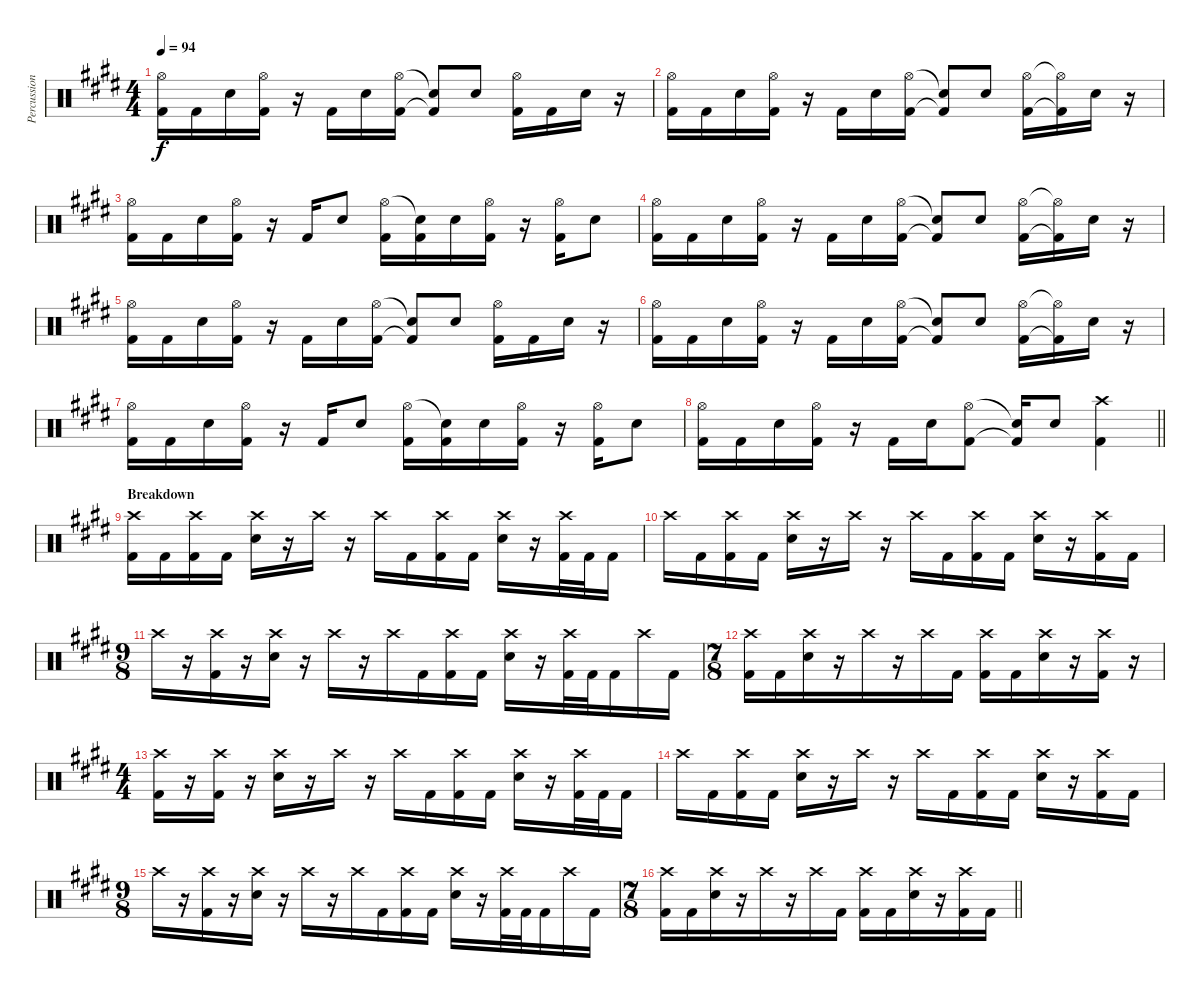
\track ("Percussion" "Percussion") {instrument percussion}
\staff {score}
\articulation defaults
\ts (4 4)
\tempo 94
\clef neutral
\ks e
("Hi-Hat (open)" "Kick (hit) 2").16{dy f} "Kick (hit) 2".16 "Snare (hit) 2".16 ("Hi-Hat (open)" "Kick (hit) 2").16 r.16 "Kick (hit) 2".16 "Snare (hit) 2".16 ("Hi-Hat (open)" "Kick (hit) 2").16 ("Snare (hit)"{t} "Kick (hit) 2"{t}).8 "Snare (hit) 2".8 ("Hi-Hat (open)" "Kick (hit) 2").16 "Kick (hit) 2".16 "Snare (hit) 2".16 r.16 |
("Hi-Hat (open)" "Kick (hit) 2").16 "Kick (hit) 2".16 "Snare (hit) 2".16 ("Hi-Hat (open)" "Kick (hit) 2").16 r.16 "Kick (hit) 2".16 "Snare (hit) 2".16 ("Hi-Hat (open)" "Kick (hit) 2").16 ("Snare (hit)"{t} "Kick (hit) 2"{t}).8 "Snare (hit) 2".8 ("Hi-Hat (open)" "Kick (hit) 2").16 ("Hi-Hat (open)"{t} "Kick (hit) 2"{t}).16 "Snare (hit) 2".16 r.16 |
("Hi-Hat (open)" "Kick (hit) 2").16 "Kick (hit) 2".16 "Snare (hit) 2".16 ("Hi-Hat (open)" "Kick (hit) 2").16 r.16 "Kick (hit) 2".16 "Snare (hit) 2".8 ("Hi-Hat (open)" "Kick (hit) 2").16 ("Snare (hit)"{t} "Kick (hit) 2").16 "Snare (hit) 2".16 ("Hi-Hat (open)" "Kick (hit) 2").16 r.16 ("Hi-Hat (open)" "Kick (hit) 2").16 "Snare (hit) 2".8 |
("Hi-Hat (open)" "Kick (hit) 2").16 "Kick (hit) 2".16 "Snare (hit) 2".16 ("Hi-Hat (open)" "Kick (hit) 2").16 r.16 "Kick (hit) 2".16 "Snare (hit) 2".16 ("Hi-Hat (open)" "Kick (hit) 2").16 ("Snare (hit)"{t} "Kick (hit) 2"{t}).8 "Snare (hit) 2".8 ("Hi-Hat (open)" "Kick (hit) 2").16 ("Hi-Hat (open)"{t} "Kick (hit) 2"{t}).16 "Snare (hit) 2".16 r.16 |
("Hi-Hat (open)" "Kick (hit) 2").16 "Kick (hit) 2".16 "Snare (hit) 2".16 ("Hi-Hat (open)" "Kick (hit) 2").16 r.16 "Kick (hit) 2".16 "Snare (hit) 2".16 ("Hi-Hat (open)" "Kick (hit) 2").16 ("Snare (hit)"{t} "Kick (hit) 2"{t}).8 "Snare (hit) 2".8 ("Hi-Hat (open)" "Kick (hit) 2").16 "Kick (hit) 2".16 "Snare (hit) 2".16 r.16 |
("Hi-Hat (open)" "Kick (hit) 2").16 "Kick (hit) 2".16 "Snare (hit) 2".16 ("Hi-Hat (open)" "Kick (hit) 2").16 r.16 "Kick (hit) 2".16 "Snare (hit) 2".16 ("Hi-Hat (open)" "Kick (hit) 2").16 ("Snare (hit)"{t} "Kick (hit) 2"{t}).8 "Snare (hit) 2".8 ("Hi-Hat (open)" "Kick (hit) 2").16 ("Hi-Hat (open)"{t} "Kick (hit) 2"{t}).16 "Snare (hit) 2".16 r.16 |
("Hi-Hat (open)" "Kick (hit) 2").16 "Kick (hit) 2".16 "Snare (hit) 2".16 ("Hi-Hat (open)" "Kick (hit) 2").16 r.16 "Kick (hit) 2".16 "Snare (hit) 2".8 ("Hi-Hat (open)" "Kick (hit) 2").16 ("Snare (hit)"{t} "Kick (hit) 2").16 "Snare (hit) 2".16 ("Hi-Hat (open)" "Kick (hit) 2").16 r.16 ("Hi-Hat (open)" "Kick (hit) 2").16 "Snare (hit) 2".8 |
\barLineRight lightlight
("Hi-Hat (open)" "Kick (hit) 2").16 "Kick (hit) 2".16 "Snare (hit) 2".16 ("Hi-Hat (open)" "Kick (hit) 2").16 r.16 "Kick (hit) 2".16 "Snare (hit) 2".16 ("Hi-Hat (open)" "Kick (hit) 2").8 ("Snare (hit)"{t} "Kick (hit) 2"{t}).16 "Snare (hit) 2".8 ("Crash high (hit)" "Kick (hit) 2").4 |
\section ("" "Breakdown")
("Crash high (hit)" "Kick (hit) 2").16 "Kick (hit) 2".16 ("Crash high (hit)" "Kick (hit) 2").16 "Kick (hit) 2".16 ("Crash high (hit)" "Snare (hit) 2").16 r.16 "Crash high (hit)".16 r.16 "Crash high (hit)".16 "Kick (hit) 2".16 ("Crash high (hit)" "Kick (hit) 2").16 "Kick (hit) 2".16 ("Crash high (hit)" "Snare (hit) 2").16 r.16 ("Crash high (hit)" "Kick (hit) 2").32 "Kick (hit) 2".32 "Kick (hit) 2".16 |
"Crash high (hit)".16 "Kick (hit) 2".16 ("Crash high (hit)" "Kick (hit) 2").16 "Kick (hit) 2".16 ("Crash high (hit)" "Snare (hit) 2").16 r.16 "Crash high (hit)".16 r.16 "Crash high (hit)".16 "Kick (hit) 2".16 ("Crash high (hit)" "Kick (hit) 2").16 "Kick (hit) 2".16 ("Crash high (hit)" "Snare (hit) 2").16 r.16 ("Crash high (hit)" "Kick (hit) 2").16 "Kick (hit) 2".16 |
\ts (9 8)
"Crash high (hit)".16 r.16 ("Crash high (hit)" "Kick (hit) 2").16 r.16 ("Crash high (hit)" "Snare (hit) 2").16 r.16 "Crash high (hit)".16 r.16 "Crash high (hit)".16 "Kick (hit) 2".16 ("Crash high (hit)" "Kick (hit) 2").16 "Kick (hit) 2".16 ("Crash high (hit)" "Snare (hit) 2").16 r.16 ("Crash high (hit)" "Kick (hit) 2").32 "Kick (hit) 2".32 "Kick (hit) 2".16 "Crash high (hit)".16 "Kick (hit) 2".16 |
\ts (7 8)
("Crash high (hit)" "Kick (hit) 2").16 "Kick (hit) 2".16 ("Crash high (hit)" "Snare (hit) 2").16 r.16 "Crash high (hit)".16 r.16 "Crash high (hit)".16 "Kick (hit) 2".16 ("Crash high (hit)" "Kick (hit) 2").16 "Kick (hit) 2".16 ("Crash high (hit)" "Snare (hit) 2").16 r.16 ("Crash high (hit)" "Kick (hit) 2").16 r.16 |
\ts (4 4)
("Crash high (hit)" "Kick (hit) 2").16 r.16 ("Crash high (hit)" "Kick (hit) 2").16 r.16 ("Crash high (hit)" "Snare (hit) 2").16 r.16 "Crash high (hit)".16 r.16 "Crash high (hit)".16 "Kick (hit) 2".16 ("Crash high (hit)" "Kick (hit) 2").16 "Kick (hit) 2".16 ("Crash high (hit)" "Snare (hit) 2").16 r.16 ("Crash high (hit)" "Kick (hit) 2").32 "Kick (hit) 2".32 "Kick (hit) 2".16 |
"Crash high (hit)".16 "Kick (hit) 2".16 ("Crash high (hit)" "Kick (hit) 2").16 "Kick (hit) 2".16 ("Crash high (hit)" "Snare (hit) 2").16 r.16 "Crash high (hit)".16 r.16 "Crash high (hit)".16 "Kick (hit) 2".16 ("Crash high (hit)" "Kick (hit) 2").16 "Kick (hit) 2".16 ("Crash high (hit)" "Snare (hit) 2").16 r.16 ("Crash high (hit)" "Kick (hit) 2").16 "Kick (hit) 2".16 |
\ts (9 8)
"Crash high (hit)".16 r.16 ("Crash high (hit)" "Kick (hit) 2").16 r.16 ("Crash high (hit)" "Snare (hit) 2").16 r.16 "Crash high (hit)".16 r.16 "Crash high (hit)".16 "Kick (hit) 2".16 ("Crash high (hit)" "Kick (hit) 2").16 "Kick (hit) 2".16 ("Crash high (hit)" "Snare (hit) 2").16 r.16 ("Crash high (hit)" "Kick (hit) 2").32 "Kick (hit) 2".32 "Kick (hit) 2".16 "Crash high (hit)".16 "Kick (hit) 2".16 |
\ts (7 8)
\barLineRight lightlight
("Crash high (hit)" "Kick (hit) 2").16 "Kick (hit) 2".16 ("Crash high (hit)" "Snare (hit) 2").16 r.16 "Crash high (hit)".16 r.16 "Crash high (hit)".16 "Kick (hit) 2".16 ("Crash high (hit)" "Kick (hit) 2").16 "Kick (hit) 2".16 ("Crash high (hit)" "Snare (hit) 2").16 r.16 ("Crash high (hit)" "Kick (hit) 2").16 "Kick (hit) 2".16
